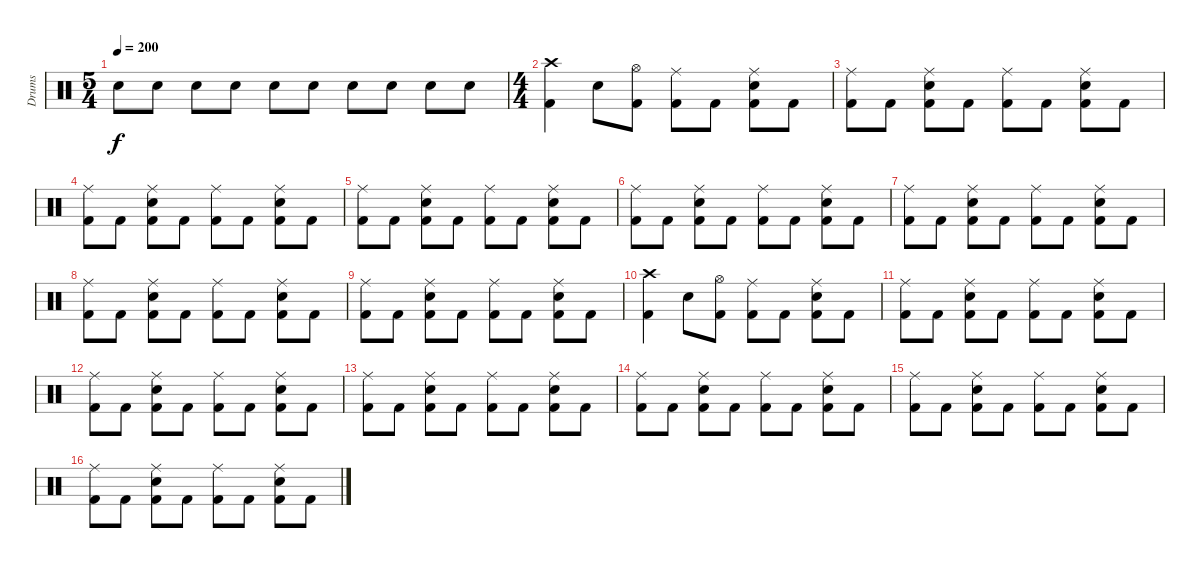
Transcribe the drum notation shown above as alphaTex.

\track ("Drums" "Drums") {instrument percussion}
\staff {score}
\articulation defaults
\ts (5 4)
\tempo 200
\clef neutral
\ks c "Snare (hit) 2".8{dy f} "Snare (hit) 2".8 "Snare (hit) 2".8 "Snare (hit) 2".8 "Snare (hit) 2".8 "Snare (hit) 2".8 "Snare (hit) 2".8 "Snare (hit) 2".8 "Snare (hit) 2".8 "Snare (hit) 2".8
|
\ts (4 4)
("Crash high (hit)" "Kick (hit) 2").4 "Snare (hit) 2".8 ("Hi-Hat (open)" "Kick (hit) 2").8 ("Ride (middle)" "Kick (hit) 2").8 "Kick (hit) 2".8 ("Ride (middle)" "Snare (hit) 2" "Kick (hit) 2").8 "Kick (hit) 2".8 |
("Ride (middle)" "Kick (hit) 2").8 "Kick (hit) 2".8 ("Ride (middle)" "Snare (hit) 2" "Kick (hit) 2").8 "Kick (hit) 2".8 ("Ride (middle)" "Kick (hit) 2").8 "Kick (hit) 2".8 ("Ride (middle)" "Snare (hit) 2" "Kick (hit) 2").8 "Kick (hit) 2".8 |
("Ride (middle)" "Kick (hit) 2").8 "Kick (hit) 2".8 ("Ride (middle)" "Snare (hit) 2" "Kick (hit) 2").8 "Kick (hit) 2".8 ("Ride (middle)" "Kick (hit) 2").8 "Kick (hit) 2".8 ("Ride (middle)" "Snare (hit) 2" "Kick (hit) 2").8 "Kick (hit) 2".8 |
("Ride (middle)" "Kick (hit) 2").8 "Kick (hit) 2".8 ("Ride (middle)" "Snare (hit) 2" "Kick (hit) 2").8 "Kick (hit) 2".8 ("Ride (middle)" "Kick (hit) 2").8 "Kick (hit) 2".8 ("Ride (middle)" "Snare (hit) 2" "Kick (hit) 2").8 "Kick (hit) 2".8 |
("Ride (middle)" "Kick (hit) 2").8 "Kick (hit) 2".8 ("Ride (middle)" "Snare (hit) 2" "Kick (hit) 2").8 "Kick (hit) 2".8 ("Ride (middle)" "Kick (hit) 2").8 "Kick (hit) 2".8 ("Ride (middle)" "Snare (hit) 2" "Kick (hit) 2").8 "Kick (hit) 2".8 |
("Ride (middle)" "Kick (hit) 2").8 "Kick (hit) 2".8 ("Ride (middle)" "Snare (hit) 2" "Kick (hit) 2").8 "Kick (hit) 2".8 ("Ride (middle)" "Kick (hit) 2").8 "Kick (hit) 2".8 ("Ride (middle)" "Snare (hit) 2" "Kick (hit) 2").8 "Kick (hit) 2".8 |
("Ride (middle)" "Kick (hit) 2").8 "Kick (hit) 2".8 ("Ride (middle)" "Snare (hit) 2" "Kick (hit) 2").8 "Kick (hit) 2".8 ("Ride (middle)" "Kick (hit) 2").8 "Kick (hit) 2".8 ("Ride (middle)" "Snare (hit) 2" "Kick (hit) 2").8 "Kick (hit) 2".8 |
("Ride (middle)" "Kick (hit) 2").8 "Kick (hit) 2".8 ("Ride (middle)" "Snare (hit) 2" "Kick (hit) 2").8 "Kick (hit) 2".8 ("Ride (middle)" "Kick (hit) 2").8 "Kick (hit) 2".8 ("Ride (middle)" "Snare (hit) 2" "Kick (hit) 2").8 "Kick (hit) 2".8 |
("Crash high (hit)" "Kick (hit) 2").4 "Snare (hit) 2".8 ("Hi-Hat (open)" "Kick (hit) 2").8 ("Ride (middle)" "Kick (hit) 2").8 "Kick (hit) 2".8 ("Ride (middle)" "Snare (hit) 2" "Kick (hit) 2").8 "Kick (hit) 2".8 |
("Ride (middle)" "Kick (hit) 2").8 "Kick (hit) 2".8 ("Ride (middle)" "Snare (hit) 2" "Kick (hit) 2").8 "Kick (hit) 2".8 ("Ride (middle)" "Kick (hit) 2").8 "Kick (hit) 2".8 ("Ride (middle)" "Snare (hit) 2" "Kick (hit) 2").8 "Kick (hit) 2".8 |
("Ride (middle)" "Kick (hit) 2").8 "Kick (hit) 2".8 ("Ride (middle)" "Snare (hit) 2" "Kick (hit) 2").8 "Kick (hit) 2".8 ("Ride (middle)" "Kick (hit) 2").8 "Kick (hit) 2".8 ("Ride (middle)" "Snare (hit) 2" "Kick (hit) 2").8 "Kick (hit) 2".8 |
("Ride (middle)" "Kick (hit) 2").8 "Kick (hit) 2".8 ("Ride (middle)" "Snare (hit) 2" "Kick (hit) 2").8 "Kick (hit) 2".8 ("Ride (middle)" "Kick (hit) 2").8 "Kick (hit) 2".8 ("Ride (middle)" "Snare (hit) 2" "Kick (hit) 2").8 "Kick (hit) 2".8 |
("Ride (middle)" "Kick (hit) 2").8 "Kick (hit) 2".8 ("Ride (middle)" "Snare (hit) 2" "Kick (hit) 2").8 "Kick (hit) 2".8 ("Ride (middle)" "Kick (hit) 2").8 "Kick (hit) 2".8 ("Ride (middle)" "Snare (hit) 2" "Kick (hit) 2").8 "Kick (hit) 2".8 |
("Ride (middle)" "Kick (hit) 2").8 "Kick (hit) 2".8 ("Ride (middle)" "Snare (hit) 2" "Kick (hit) 2").8 "Kick (hit) 2".8 ("Ride (middle)" "Kick (hit) 2").8 "Kick (hit) 2".8 ("Ride (middle)" "Snare (hit) 2" "Kick (hit) 2").8 "Kick (hit) 2".8 |
("Ride (middle)" "Kick (hit) 2").8 "Kick (hit) 2".8 ("Ride (middle)" "Snare (hit) 2" "Kick (hit) 2").8 "Kick (hit) 2".8 ("Ride (middle)" "Kick (hit) 2").8 "Kick (hit) 2".8 ("Ride (middle)" "Snare (hit) 2" "Kick (hit) 2").8 "Kick (hit) 2".8
